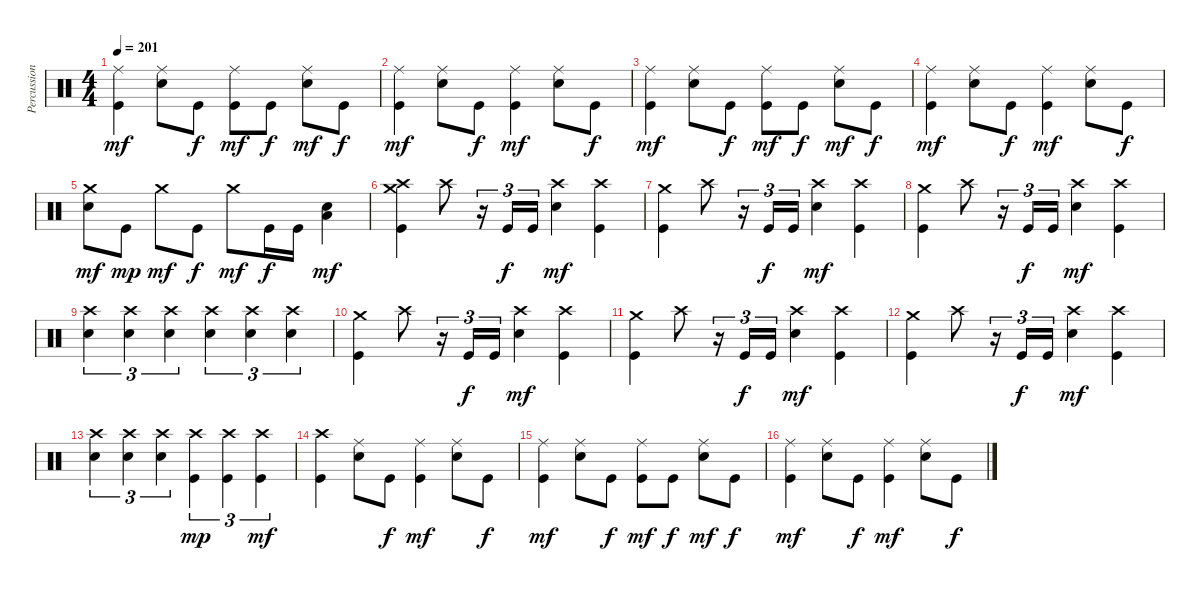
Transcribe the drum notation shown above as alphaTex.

\track ("Percussion" "Percussion") {instrument percussion}
\staff {score}
\articulation defaults
\ts (4 4)
\tempo 201
\clef neutral
\ks c
("Ride (middle)" "Kick (hit)").4{dy mf} ("Ride (middle)" "Electric Snare (hit)").8 "Kick (hit)".8{dy f} ("Ride (middle)" "Kick (hit)").8{dy mf} "Kick (hit)".8{dy f} ("Ride (middle)" "Electric Snare (hit)").8{dy mf} "Kick (hit)".8{dy f} |
("Ride (middle)" "Kick (hit)").4{dy mf} ("Ride (middle)" "Electric Snare (hit)").8 "Kick (hit)".8{dy f} ("Ride (middle)" "Kick (hit)").4{dy mf} ("Ride (middle)" "Electric Snare (hit)").8 "Kick (hit)".8{dy f} |
("Ride (middle)" "Kick (hit)").4{dy mf} ("Ride (middle)" "Electric Snare (hit)").8 "Kick (hit)".8{dy f} ("Ride (middle)" "Kick (hit)").8{dy mf} "Kick (hit)".8{dy f} ("Ride (middle)" "Electric Snare (hit)").8{dy mf} "Kick (hit)".8{dy f} |
("Ride (middle)" "Kick (hit)").4{dy mf} ("Ride (middle)" "Electric Snare (hit)").8 "Kick (hit)".8{dy f} ("Ride (middle)" "Kick (hit)").4{dy mf} ("Ride (middle)" "Electric Snare (hit)").8 "Kick (hit)".8{dy f} |
("Crash medium (hit)" "Electric Snare (hit)").8{dy mf} "Kick (hit)".8{dy mp} "Crash medium (hit)".8{dy mf} "Kick (hit)".8{dy f} "Crash medium (hit)".8{dy mf} "Kick (hit)".16{dy f} "Kick (hit)".16 ("Low Floor Tom (hit)" "Electric Snare (hit)").4{dy mf} |
("Crash medium (hit)" "Crash high (hit)" "Kick (hit)").4 "Crash high (hit)".8 r.16{tu (3 2)} "Kick (hit)".16{tu (3 2) dy f} "Kick (hit)".16{tu (3 2)} ("Crash high (hit)" "Electric Snare (hit)").4{dy mf} ("Crash high (hit)" "Kick (hit)").4 |
("Crash medium (hit)" "Kick (hit)").4 "Crash high (hit)".8 r.16{tu (3 2)} "Kick (hit)".16{tu (3 2) dy f} "Kick (hit)".16{tu (3 2)} ("Crash high (hit)" "Electric Snare (hit)").4{dy mf} ("Crash high (hit)" "Kick (hit)").4 |
("Crash medium (hit)" "Kick (hit)").4 "Crash high (hit)".8 r.16{tu (3 2)} "Kick (hit)".16{tu (3 2) dy f} "Kick (hit)".16{tu (3 2)} ("Crash high (hit)" "Electric Snare (hit)").4{dy mf} ("Crash high (hit)" "Kick (hit)").4 |
("Crash high (hit)" "Electric Snare (hit)").4{tu (3 2)} ("Crash high (hit)" "Electric Snare (hit)").4{tu (3 2)} ("Crash high (hit)" "Electric Snare (hit)").4{tu (3 2)} ("Crash high (hit)" "Electric Snare (hit)").4{tu (3 2)} ("Crash high (hit)" "Electric Snare (hit)").4{tu (3 2)} ("Crash high (hit)" "Electric Snare (hit)").4{tu (3 2)} |
("Crash medium (hit)" "Kick (hit)").4 "Crash high (hit)".8 r.16{tu (3 2)} "Kick (hit)".16{tu (3 2) dy f} "Kick (hit)".16{tu (3 2)} ("Crash high (hit)" "Electric Snare (hit)").4{dy mf} ("Crash high (hit)" "Kick (hit)").4 |
("Crash medium (hit)" "Kick (hit)").4 "Crash high (hit)".8 r.16{tu (3 2)} "Kick (hit)".16{tu (3 2) dy f} "Kick (hit)".16{tu (3 2)} ("Crash high (hit)" "Electric Snare (hit)").4{dy mf} ("Crash high (hit)" "Kick (hit)").4 |
("Crash medium (hit)" "Kick (hit)").4 "Crash high (hit)".8 r.16{tu (3 2)} "Kick (hit)".16{tu (3 2) dy f} "Kick (hit)".16{tu (3 2)} ("Crash high (hit)" "Electric Snare (hit)").4{dy mf} ("Crash high (hit)" "Kick (hit)").4 |
("Crash high (hit)" "Electric Snare (hit)").4{tu (3 2)} ("Crash high (hit)" "Electric Snare (hit)").4{tu (3 2)} ("Crash high (hit)" "Electric Snare (hit)").4{tu (3 2)} ("Crash high (hit)" "Kick (hit)").4{tu (3 2) dy mp} ("Crash high (hit)" "Kick (hit)").4{tu (3 2)} ("Crash high (hit)" "Kick (hit)").4{tu (3 2) dy mf} |
("Crash high (hit)" "Kick (hit)").4 ("Ride (middle)" "Electric Snare (hit)").8 "Kick (hit)".8{dy f} ("Ride (middle)" "Kick (hit)").4{dy mf} ("Ride (middle)" "Electric Snare (hit)").8 "Kick (hit)".8{dy f} |
("Ride (middle)" "Kick (hit)").4{dy mf} ("Ride (middle)" "Electric Snare (hit)").8 "Kick (hit)".8{dy f} ("Ride (middle)" "Kick (hit)").8{dy mf} "Kick (hit)".8{dy f} ("Ride (middle)" "Electric Snare (hit)").8{dy mf} "Kick (hit)".8{dy f} |
("Ride (middle)" "Kick (hit)").4{dy mf} ("Ride (middle)" "Electric Snare (hit)").8 "Kick (hit)".8{dy f} ("Ride (middle)" "Kick (hit)").4{dy mf} ("Ride (middle)" "Electric Snare (hit)").8 "Kick (hit)".8{dy f}
